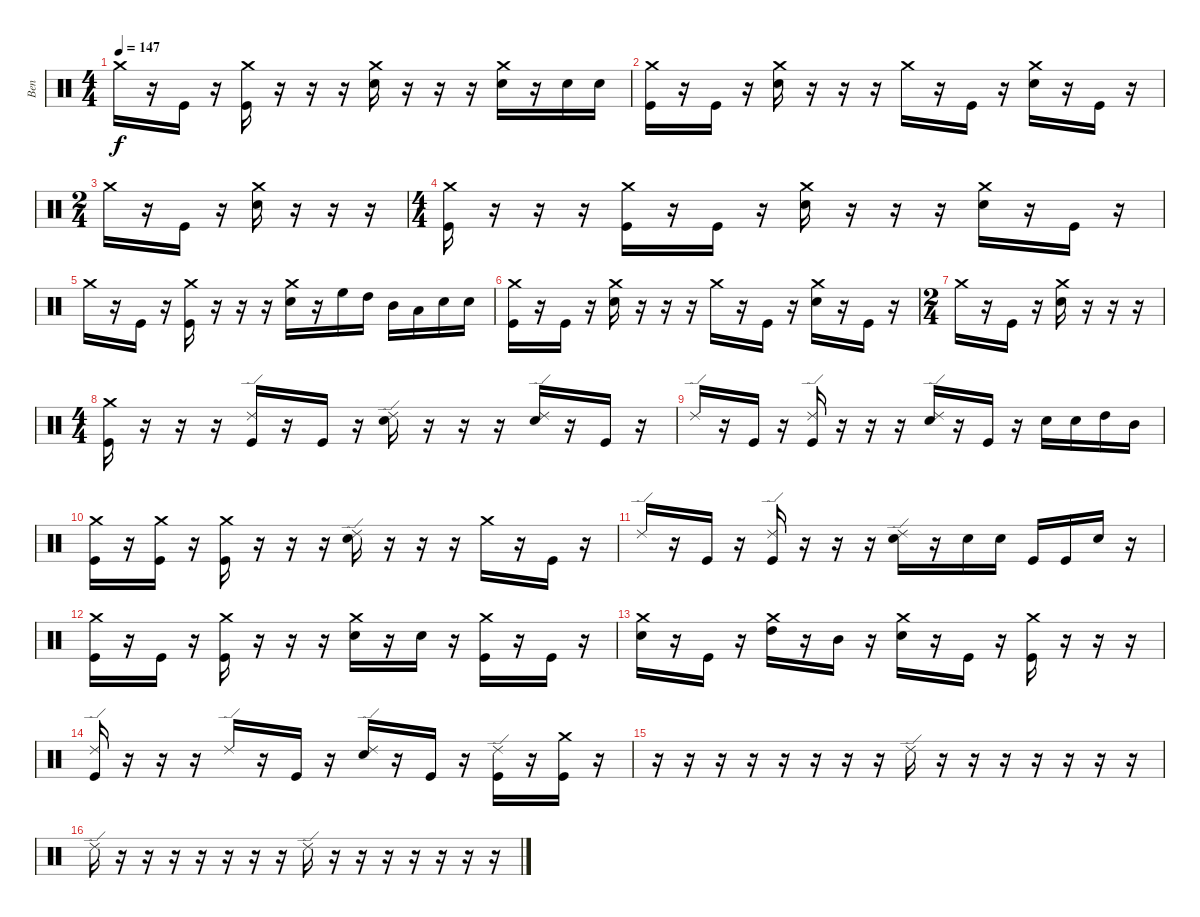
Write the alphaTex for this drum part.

\track ("Ben" "Ben") {instrument percussion}
\staff {score}
\articulation defaults
\ts (4 4)
\tempo 147
\clef neutral
\ks c "Crash medium (hit)".16{dy f}
r.16 "Kick (hit)".16 r.16 ("Crash medium (hit)" "Kick (hit)").16 r.16 r.16 r.16 ("Crash medium (hit)" "Electric Snare (hit)").16 r.16 r.16 r.16 ("Crash medium (hit)" "Electric Snare (hit)").16 r.16 "Electric Snare (hit)".16 "Electric Snare (hit)".16 |
("Crash medium (hit)" "Kick (hit)").16 r.16 "Kick (hit)".16 r.16 ("Crash medium (hit)" "Electric Snare (hit)").16 r.16 r.16 r.16 "Crash medium (hit)".16 r.16 "Kick (hit)".16 r.16 ("Crash medium (hit)" "Electric Snare (hit)").16 r.16 "Kick (hit)".16 r.16 |
\ts (2 4)
"Crash medium (hit)".16 r.16 "Kick (hit)".16 r.16 ("Crash medium (hit)" "Electric Snare (hit)").16 r.16 r.16 r.16 |
\ts (4 4)
("Crash medium (hit)" "Kick (hit)").16 r.16 r.16 r.16 ("Crash medium (hit)" "Kick (hit)").16 r.16 "Kick (hit)".16 r.16 ("Crash medium (hit)" "Electric Snare (hit)").16 r.16 r.16 r.16 ("Crash medium (hit)" "Electric Snare (hit)").16 r.16 "Kick (hit)".16 r.16 |
"Crash medium (hit)".16 r.16 "Kick (hit)".16 r.16 ("Crash medium (hit)" "Kick (hit)").16 r.16 r.16 r.16 ("Crash medium (hit)" "Electric Snare (hit)").16 r.16 "High Floor Tom (hit)".16 "High Tom (hit)".16 "Mid Tom (hit)".16 "Low Tom (hit)".16 "Electric Snare (hit)".16 "Electric Snare (hit)".16 |
("Crash medium (hit)" "Kick (hit)").16 r.16 "Kick (hit)".16 r.16 ("Crash medium (hit)" "Electric Snare (hit)").16 r.16 r.16 r.16 "Crash medium (hit)".16 r.16 "Kick (hit)".16 r.16 ("Crash medium (hit)" "Electric Snare (hit)").16 r.16 "Kick (hit)".16 r.16 |
\ts (2 4)
"Crash medium (hit)".16 r.16 "Kick (hit)".16 r.16 ("Crash medium (hit)" "Electric Snare (hit)").16 r.16 r.16 r.16 |
\ts (4 4)
("Crash medium (hit)" "Kick (hit)").16 r.16 r.16 r.16 ("Ride (edge) 2" "Kick (hit)").16 r.16 "Kick (hit)".16 r.16 ("Ride (edge) 2" "Electric Snare (hit)").16 r.16 r.16 r.16 ("Ride (edge) 2" "Electric Snare (hit)").16 r.16 "Kick (hit)".16 r.16 |
"Ride (edge) 2".16 r.16 "Kick (hit)".16 r.16 ("Ride (edge) 2" "Kick (hit)").16 r.16 r.16 r.16 ("Ride (edge) 2" "Electric Snare (hit)").16 r.16 "Kick (hit)".16 r.16 "Electric Snare (hit)".16 "Electric Snare (hit)".16 "High Tom (hit)".16 "Mid Tom (hit)".16 |
("Crash medium (hit)" "Kick (hit)").16 r.16 ("Crash medium (hit)" "Kick (hit)").16 r.16 ("Crash medium (hit)" "Kick (hit)").16 r.16 r.16 r.16 ("Ride (edge) 2" "Electric Snare (hit)").16 r.16 r.16 r.16 "Crash medium (hit)".16 r.16 "Kick (hit)".16 r.16 |
"Ride (edge) 2".16 r.16 "Kick (hit)".16 r.16 ("Ride (edge) 2" "Kick (hit)").16 r.16 r.16 r.16 ("Ride (edge) 2" "Electric Snare (hit)").16 r.16 "Electric Snare (hit)".16 "Electric Snare (hit)".16 "Kick (hit)".16 "Kick (hit)".16 "Electric Snare (hit)".16 r.16 |
("Crash medium (hit)" "Kick (hit)").16 r.16 "Kick (hit)".16 r.16 ("Crash medium (hit)" "Kick (hit)").16 r.16 r.16 r.16 ("Crash medium (hit)" "Electric Snare (hit)").16 r.16 "Electric Snare (hit)".16 r.16 ("Crash medium (hit)" "Kick (hit)").16 r.16 "Kick (hit)".16 r.16 |
("Crash medium (hit)" "Electric Snare (hit)").16 r.16 "Kick (hit)".16 r.16 ("Crash medium (hit)" "High Tom (hit)").16 r.16 "Mid Tom (hit)".16 r.16 ("Crash medium (hit)" "Electric Snare (hit)").16 r.16 "Kick (hit)".16 r.16 ("Crash medium (hit)" "Kick (hit)").16 r.16 r.16 r.16 |
("Ride (edge) 2" "Kick (hit)").16 r.16 r.16 r.16 "Ride (edge) 2".16 r.16 "Kick (hit)".16 r.16 ("Ride (edge) 2" "Electric Snare (hit)").16 r.16 "Kick (hit)".16 r.16 ("Ride (edge) 2" "Kick (hit)").16 r.16 ("Crash medium (hit)" "Kick (hit)").16 r.16 |
r.16 r.16 r.16 r.16 r.16 r.16 r.16 r.16 "Ride (edge) 2".16 r.16 r.16 r.16 r.16 r.16 r.16 r.16 |
"Ride (edge) 2".16 r.16 r.16 r.16 r.16 r.16 r.16 r.16 "Ride (edge) 2".16 r.16 r.16 r.16 r.16 r.16 r.16 r.16
